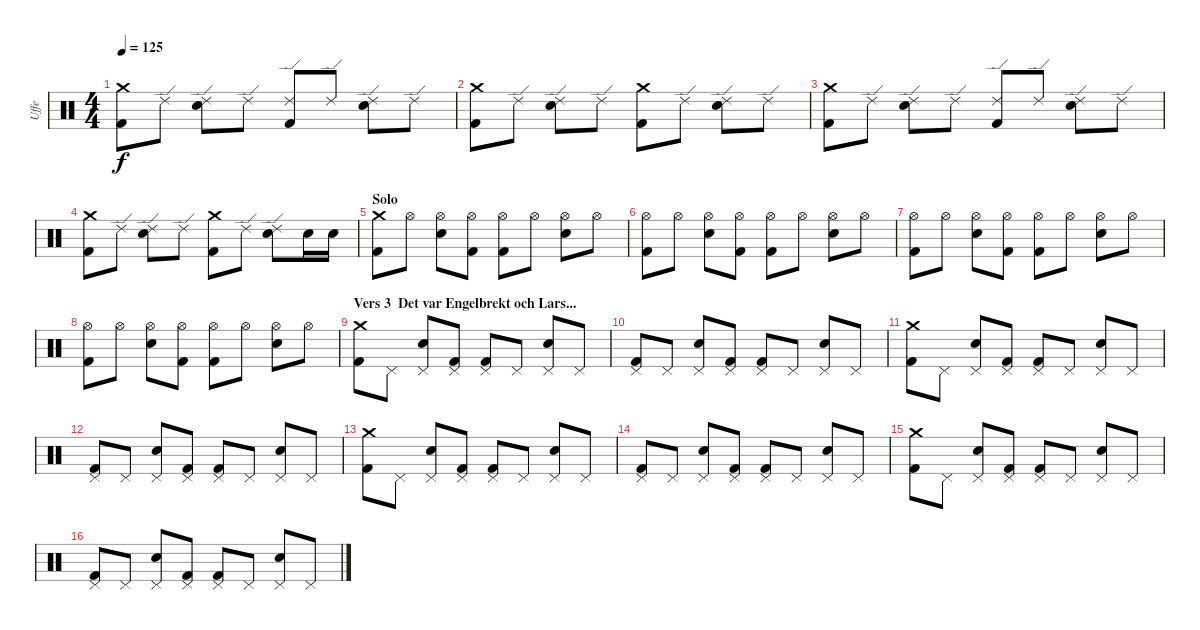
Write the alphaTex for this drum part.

\track ("Uffe" "Uffe") {instrument percussion}
\staff {score}
\articulation defaults
\ts (4 4)
\tempo 125
\clef neutral
\ks c
("Crash medium (hit)" "Kick (hit) 2").8{dy f} "Ride (edge) 2".8 ("Ride (edge) 2" "Electric Snare (hit)").8 "Ride (edge) 2".8 ("Ride (edge) 2" "Kick (hit) 2").8 "Ride (edge) 2".8 ("Ride (edge) 2" "Electric Snare (hit)").8 "Ride (edge) 2".8 |
("Crash medium (hit)" "Kick (hit) 2").8 "Ride (edge) 2".8 ("Ride (edge) 2" "Electric Snare (hit)").8 "Ride (edge) 2".8 ("Crash medium (hit)" "Kick (hit) 2").8 "Ride (edge) 2".8 ("Ride (edge) 2" "Electric Snare (hit)").8 "Ride (edge) 2".8 |
("Crash medium (hit)" "Kick (hit) 2").8 "Ride (edge) 2".8 ("Ride (edge) 2" "Electric Snare (hit)").8 "Ride (edge) 2".8 ("Ride (edge) 2" "Kick (hit) 2").8 "Ride (edge) 2".8 ("Ride (edge) 2" "Electric Snare (hit)").8 "Ride (edge) 2".8 |
("Crash medium (hit)" "Kick (hit) 2").8 "Ride (edge) 2".8 ("Ride (edge) 2" "Electric Snare (hit)").8 "Ride (edge) 2".8 ("Crash medium (hit)" "Kick (hit) 2").8 "Ride (edge) 2".8 ("Ride (edge) 2" "Electric Snare (hit)").8 "Electric Snare (hit)".16 "Electric Snare (hit)".16 |
\section ("" "Solo")
("Crash medium (hit)" "Kick (hit) 2").8 "Hi-Hat (open)".8 ("Hi-Hat (open)" "Electric Snare (hit)").8 ("Hi-Hat (open)" "Kick (hit) 2").8 ("Hi-Hat (open)" "Kick (hit) 2").8 "Hi-Hat (open)".8 ("Hi-Hat (open)" "Electric Snare (hit)").8 "Hi-Hat (open)".8 |
("Hi-Hat (open)" "Kick (hit) 2").8 "Hi-Hat (open)".8 ("Hi-Hat (open)" "Electric Snare (hit)").8 ("Hi-Hat (open)" "Kick (hit) 2").8 ("Hi-Hat (open)" "Kick (hit) 2").8 "Hi-Hat (open)".8 ("Hi-Hat (open)" "Electric Snare (hit)").8 "Hi-Hat (open)".8 |
("Hi-Hat (open)" "Kick (hit) 2").8 "Hi-Hat (open)".8 ("Hi-Hat (open)" "Electric Snare (hit)").8 ("Hi-Hat (open)" "Kick (hit) 2").8 ("Hi-Hat (open)" "Kick (hit) 2").8 "Hi-Hat (open)".8 ("Hi-Hat (open)" "Electric Snare (hit)").8 "Hi-Hat (open)".8 |
("Hi-Hat (open)" "Kick (hit) 2").8 "Hi-Hat (open)".8 ("Hi-Hat (open)" "Electric Snare (hit)").8 ("Hi-Hat (open)" "Kick (hit) 2").8 ("Hi-Hat (open)" "Kick (hit) 2").8 "Hi-Hat (open)".8 ("Hi-Hat (open)" "Electric Snare (hit)").8 "Hi-Hat (open)".8 |
\section ("" "Vers 3  Det var Engelbrekt och Lars...")
("Crash medium (hit)" "Kick (hit) 2").8 "Pedal Hi-Hat (hit)".8 ("Pedal Hi-Hat (hit)" "Electric Snare (hit)").8 ("Pedal Hi-Hat (hit)" "Kick (hit) 2").8 ("Pedal Hi-Hat (hit)" "Kick (hit) 2").8 "Pedal Hi-Hat (hit)".8 ("Pedal Hi-Hat (hit)" "Electric Snare (hit)").8 "Pedal Hi-Hat (hit)".8 |
("Pedal Hi-Hat (hit)" "Kick (hit) 2").8 "Pedal Hi-Hat (hit)".8 ("Pedal Hi-Hat (hit)" "Electric Snare (hit)").8 ("Pedal Hi-Hat (hit)" "Kick (hit) 2").8 ("Pedal Hi-Hat (hit)" "Kick (hit) 2").8 "Pedal Hi-Hat (hit)".8 ("Pedal Hi-Hat (hit)" "Electric Snare (hit)").8 "Pedal Hi-Hat (hit)".8 |
("Crash medium (hit)" "Kick (hit) 2").8 "Pedal Hi-Hat (hit)".8 ("Pedal Hi-Hat (hit)" "Electric Snare (hit)").8 ("Pedal Hi-Hat (hit)" "Kick (hit) 2").8 ("Pedal Hi-Hat (hit)" "Kick (hit) 2").8 "Pedal Hi-Hat (hit)".8 ("Pedal Hi-Hat (hit)" "Electric Snare (hit)").8 "Pedal Hi-Hat (hit)".8 |
("Pedal Hi-Hat (hit)" "Kick (hit) 2").8 "Pedal Hi-Hat (hit)".8 ("Pedal Hi-Hat (hit)" "Electric Snare (hit)").8 ("Pedal Hi-Hat (hit)" "Kick (hit) 2").8 ("Pedal Hi-Hat (hit)" "Kick (hit) 2").8 "Pedal Hi-Hat (hit)".8 ("Pedal Hi-Hat (hit)" "Electric Snare (hit)").8 "Pedal Hi-Hat (hit)".8 |
("Crash medium (hit)" "Kick (hit) 2").8 "Pedal Hi-Hat (hit)".8 ("Pedal Hi-Hat (hit)" "Electric Snare (hit)").8 ("Pedal Hi-Hat (hit)" "Kick (hit) 2").8 ("Pedal Hi-Hat (hit)" "Kick (hit) 2").8 "Pedal Hi-Hat (hit)".8 ("Pedal Hi-Hat (hit)" "Electric Snare (hit)").8 "Pedal Hi-Hat (hit)".8 |
("Pedal Hi-Hat (hit)" "Kick (hit) 2").8 "Pedal Hi-Hat (hit)".8 ("Pedal Hi-Hat (hit)" "Electric Snare (hit)").8 ("Pedal Hi-Hat (hit)" "Kick (hit) 2").8 ("Pedal Hi-Hat (hit)" "Kick (hit) 2").8 "Pedal Hi-Hat (hit)".8 ("Pedal Hi-Hat (hit)" "Electric Snare (hit)").8 "Pedal Hi-Hat (hit)".8 |
("Crash medium (hit)" "Kick (hit) 2").8 "Pedal Hi-Hat (hit)".8 ("Pedal Hi-Hat (hit)" "Electric Snare (hit)").8 ("Pedal Hi-Hat (hit)" "Kick (hit) 2").8 ("Pedal Hi-Hat (hit)" "Kick (hit) 2").8 "Pedal Hi-Hat (hit)".8 ("Pedal Hi-Hat (hit)" "Electric Snare (hit)").8 "Pedal Hi-Hat (hit)".8 |
("Pedal Hi-Hat (hit)" "Kick (hit) 2").8 "Pedal Hi-Hat (hit)".8 ("Pedal Hi-Hat (hit)" "Electric Snare (hit)").8 ("Pedal Hi-Hat (hit)" "Kick (hit) 2").8 ("Pedal Hi-Hat (hit)" "Kick (hit) 2").8 "Pedal Hi-Hat (hit)".8 ("Pedal Hi-Hat (hit)" "Electric Snare (hit)").8 "Pedal Hi-Hat (hit)".8
